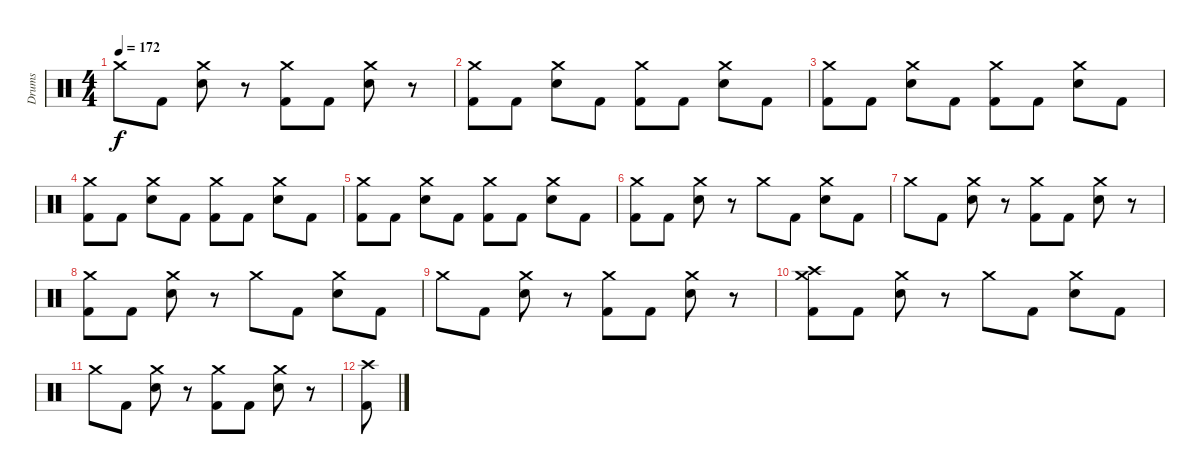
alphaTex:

\track ("Drums" "Drums") {instrument percussion}
\staff {score}
\articulation defaults
\ts (4 4)
\tempo 172
\clef neutral
\ks c "Crash medium (hit)".8{dy f} "Kick (hit) 2".8
("Crash medium (hit)" "Electric Snare (hit)").8 r.8 ("Crash medium (hit)" "Kick (hit) 2").8 "Kick (hit) 2".8 ("Crash medium (hit)" "Electric Snare (hit)").8 r.8 |
("Crash medium (hit)" "Kick (hit) 2").8 "Kick (hit) 2".8 ("Crash medium (hit)" "Electric Snare (hit)").8 "Kick (hit) 2".8 ("Crash medium (hit)" "Kick (hit) 2").8 "Kick (hit) 2".8 ("Crash medium (hit)" "Electric Snare (hit)").8 "Kick (hit) 2".8 |
("Crash medium (hit)" "Kick (hit) 2").8 "Kick (hit) 2".8 ("Crash medium (hit)" "Electric Snare (hit)").8 "Kick (hit) 2".8 ("Crash medium (hit)" "Kick (hit) 2").8 "Kick (hit) 2".8 ("Crash medium (hit)" "Electric Snare (hit)").8 "Kick (hit) 2".8 |
("Crash medium (hit)" "Kick (hit) 2").8 "Kick (hit) 2".8 ("Crash medium (hit)" "Electric Snare (hit)").8 "Kick (hit) 2".8 ("Crash medium (hit)" "Kick (hit) 2").8 "Kick (hit) 2".8 ("Crash medium (hit)" "Electric Snare (hit)").8 "Kick (hit) 2".8 |
("Crash medium (hit)" "Kick (hit) 2").8 "Kick (hit) 2".8 ("Crash medium (hit)" "Electric Snare (hit)").8 "Kick (hit) 2".8 ("Crash medium (hit)" "Kick (hit) 2").8 "Kick (hit) 2".8 ("Crash medium (hit)" "Electric Snare (hit)").8 "Kick (hit) 2".8 |
("Crash medium (hit)" "Kick (hit) 2").8 "Kick (hit) 2".8 ("Crash medium (hit)" "Electric Snare (hit)").8 r.8 "Crash medium (hit)".8 "Kick (hit) 2".8 ("Crash medium (hit)" "Electric Snare (hit)").8 "Kick (hit) 2".8 |
"Crash medium (hit)".8 "Kick (hit) 2".8 ("Crash medium (hit)" "Electric Snare (hit)").8 r.8 ("Crash medium (hit)" "Kick (hit) 2").8 "Kick (hit) 2".8 ("Crash medium (hit)" "Electric Snare (hit)").8 r.8 |
("Crash medium (hit)" "Kick (hit) 2").8 "Kick (hit) 2".8 ("Crash medium (hit)" "Electric Snare (hit)").8 r.8 "Crash medium (hit)".8 "Kick (hit) 2".8 ("Crash medium (hit)" "Electric Snare (hit)").8 "Kick (hit) 2".8 |
"Crash medium (hit)".8 "Kick (hit) 2".8 ("Crash medium (hit)" "Electric Snare (hit)").8 r.8 ("Crash medium (hit)" "Kick (hit) 2").8 "Kick (hit) 2".8 ("Crash medium (hit)" "Electric Snare (hit)").8 r.8 |
("Crash high (hit)" "Crash medium (hit)" "Kick (hit) 2").8 "Kick (hit) 2".8 ("Crash medium (hit)" "Electric Snare (hit)").8 r.8 "Crash medium (hit)".8 "Kick (hit) 2".8 ("Crash medium (hit)" "Electric Snare (hit)").8 "Kick (hit) 2".8 |
"Crash medium (hit)".8 "Kick (hit) 2".8 ("Crash medium (hit)" "Electric Snare (hit)").8 r.8 ("Crash medium (hit)" "Kick (hit) 2").8 "Kick (hit) 2".8 ("Crash medium (hit)" "Electric Snare (hit)").8 r.8 |
("Crash high (hit)" "Kick (hit) 2").8
